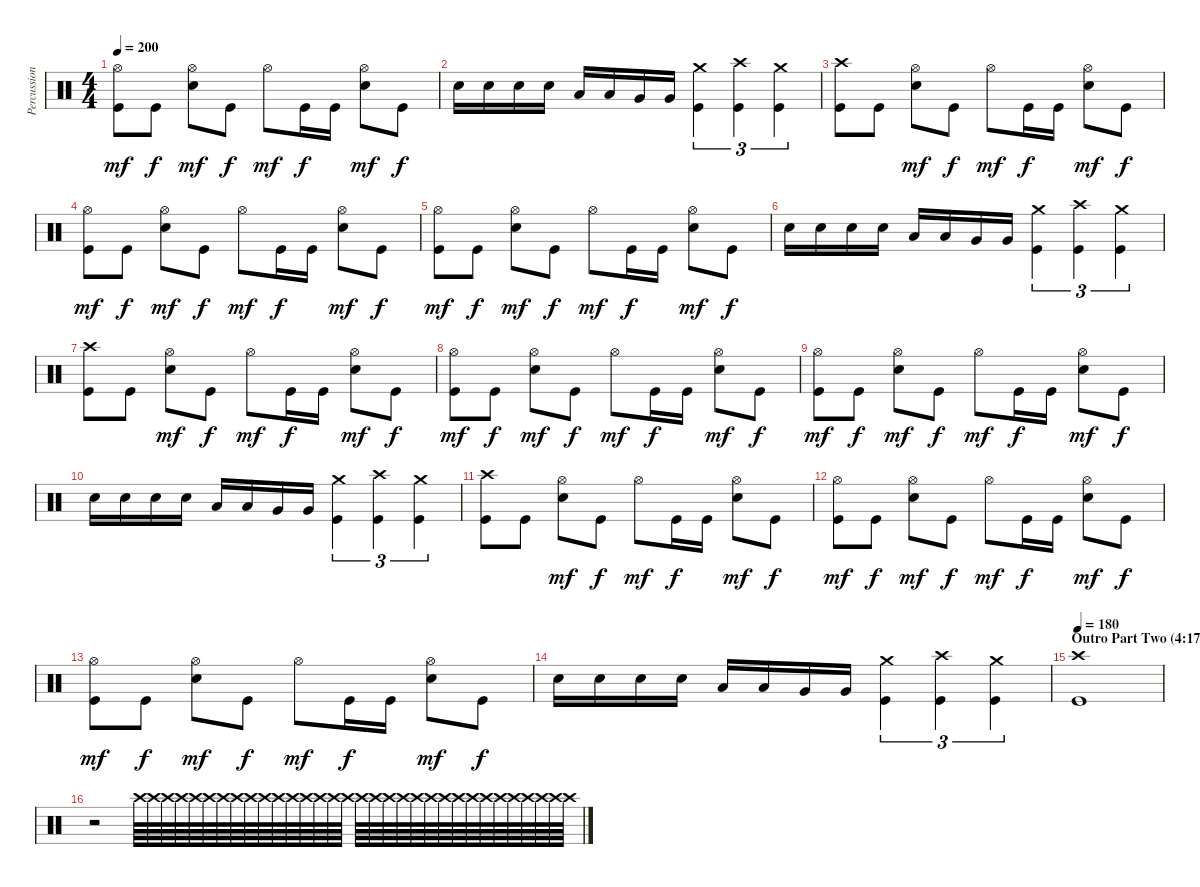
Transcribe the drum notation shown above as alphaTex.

\track ("Percussion" "Percussion") {instrument percussion}
\staff {score}
\articulation defaults
\ts (4 4)
\tempo 200
\clef neutral
\ks c
("Hi-Hat (open)" "Kick (hit)").8{dy mf} "Kick (hit)".8{dy f} ("Hi-Hat (open)" "Snare (hit) 2").8{dy mf} "Kick (hit)".8{dy f} "Hi-Hat (open)".8{dy mf} "Kick (hit)".16{dy f} "Kick (hit)".16 ("Hi-Hat (open)" "Snare (hit) 2").8{dy mf} "Kick (hit)".8{dy f} |
"Snare (hit) 2".16 "Snare (hit) 2".16 "Snare (hit) 2".16 "Snare (hit) 2".16 "Low Tom (hit)".16 "Low Tom (hit)".16 "Very Low Tom (hit)".16 "Very Low Tom (hit)".16 ("Crash medium (hit)" "Kick (hit)").4{tu (3 2)} ("Crash high (hit)" "Kick (hit)").4{tu (3 2)} ("Crash medium (hit)" "Kick (hit)").4{tu (3 2)} |
("Crash high (hit)" "Kick (hit)").8 "Kick (hit)".8 ("Hi-Hat (open)" "Snare (hit) 2").8{dy mf} "Kick (hit)".8{dy f} "Hi-Hat (open)".8{dy mf} "Kick (hit)".16{dy f} "Kick (hit)".16 ("Hi-Hat (open)" "Snare (hit) 2").8{dy mf} "Kick (hit)".8{dy f} |
("Hi-Hat (open)" "Kick (hit)").8{dy mf} "Kick (hit)".8{dy f} ("Hi-Hat (open)" "Snare (hit) 2").8{dy mf} "Kick (hit)".8{dy f} "Hi-Hat (open)".8{dy mf} "Kick (hit)".16{dy f} "Kick (hit)".16 ("Hi-Hat (open)" "Snare (hit) 2").8{dy mf} "Kick (hit)".8{dy f} |
("Hi-Hat (open)" "Kick (hit)").8{dy mf} "Kick (hit)".8{dy f} ("Hi-Hat (open)" "Snare (hit) 2").8{dy mf} "Kick (hit)".8{dy f} "Hi-Hat (open)".8{dy mf} "Kick (hit)".16{dy f} "Kick (hit)".16 ("Hi-Hat (open)" "Snare (hit) 2").8{dy mf} "Kick (hit)".8{dy f} |
"Snare (hit) 2".16 "Snare (hit) 2".16 "Snare (hit) 2".16 "Snare (hit) 2".16 "Low Tom (hit)".16 "Low Tom (hit)".16 "Very Low Tom (hit)".16 "Very Low Tom (hit)".16 ("Crash medium (hit)" "Kick (hit)").4{tu (3 2)} ("Crash high (hit)" "Kick (hit)").4{tu (3 2)} ("Crash medium (hit)" "Kick (hit)").4{tu (3 2)} |
("Crash high (hit)" "Kick (hit)").8 "Kick (hit)".8 ("Hi-Hat (open)" "Snare (hit) 2").8{dy mf} "Kick (hit)".8{dy f} "Hi-Hat (open)".8{dy mf} "Kick (hit)".16{dy f} "Kick (hit)".16 ("Hi-Hat (open)" "Snare (hit) 2").8{dy mf} "Kick (hit)".8{dy f} |
("Hi-Hat (open)" "Kick (hit)").8{dy mf} "Kick (hit)".8{dy f} ("Hi-Hat (open)" "Snare (hit) 2").8{dy mf} "Kick (hit)".8{dy f} "Hi-Hat (open)".8{dy mf} "Kick (hit)".16{dy f} "Kick (hit)".16 ("Hi-Hat (open)" "Snare (hit) 2").8{dy mf} "Kick (hit)".8{dy f} |
("Hi-Hat (open)" "Kick (hit)").8{dy mf} "Kick (hit)".8{dy f} ("Hi-Hat (open)" "Snare (hit) 2").8{dy mf} "Kick (hit)".8{dy f} "Hi-Hat (open)".8{dy mf} "Kick (hit)".16{dy f} "Kick (hit)".16 ("Hi-Hat (open)" "Snare (hit) 2").8{dy mf} "Kick (hit)".8{dy f} |
"Snare (hit) 2".16 "Snare (hit) 2".16 "Snare (hit) 2".16 "Snare (hit) 2".16 "Low Tom (hit)".16 "Low Tom (hit)".16 "Very Low Tom (hit)".16 "Very Low Tom (hit)".16 ("Crash medium (hit)" "Kick (hit)").4{tu (3 2)} ("Crash high (hit)" "Kick (hit)").4{tu (3 2)} ("Crash medium (hit)" "Kick (hit)").4{tu (3 2)} |
("Crash high (hit)" "Kick (hit)").8 "Kick (hit)".8 ("Hi-Hat (open)" "Snare (hit) 2").8{dy mf} "Kick (hit)".8{dy f} "Hi-Hat (open)".8{dy mf} "Kick (hit)".16{dy f} "Kick (hit)".16 ("Hi-Hat (open)" "Snare (hit) 2").8{dy mf} "Kick (hit)".8{dy f} |
("Hi-Hat (open)" "Kick (hit)").8{dy mf} "Kick (hit)".8{dy f} ("Hi-Hat (open)" "Snare (hit) 2").8{dy mf} "Kick (hit)".8{dy f} "Hi-Hat (open)".8{dy mf} "Kick (hit)".16{dy f} "Kick (hit)".16 ("Hi-Hat (open)" "Snare (hit) 2").8{dy mf} "Kick (hit)".8{dy f} |
("Hi-Hat (open)" "Kick (hit)").8{dy mf} "Kick (hit)".8{dy f} ("Hi-Hat (open)" "Snare (hit) 2").8{dy mf} "Kick (hit)".8{dy f} "Hi-Hat (open)".8{dy mf} "Kick (hit)".16{dy f} "Kick (hit)".16 ("Hi-Hat (open)" "Snare (hit) 2").8{dy mf} "Kick (hit)".8{dy f} |
"Snare (hit) 2".16 "Snare (hit) 2".16 "Snare (hit) 2".16 "Snare (hit) 2".16 "Low Tom (hit)".16 "Low Tom (hit)".16 "Very Low Tom (hit)".16 "Very Low Tom (hit)".16 ("Crash medium (hit)" "Kick (hit)").4{tu (3 2)} ("Crash high (hit)" "Kick (hit)").4{tu (3 2)} ("Crash medium (hit)" "Kick (hit)").4{tu (3 2)} |
\section ("" "Outro Part Two (4:17)")
\tempo 180
("Crash high (hit)" "Kick (hit)").1 |
r.2{volume 0} "Crash high (hit)".64{volume 10} "Crash high (hit)".64 "Crash high (hit)".64 "Crash high (hit)".64 "Crash high (hit)".64 "Crash high (hit)".64 "Crash high (hit)".64 "Crash high (hit)".64 "Crash high (hit)".64 "Crash high (hit)".64 "Crash high (hit)".64 "Crash high (hit)".64 "Crash high (hit)".64 "Crash high (hit)".64 "Crash high (hit)".64 "Crash high (hit)".64 "Crash high (hit)".64 "Crash high (hit)".64 "Crash high (hit)".64 "Crash high (hit)".64 "Crash high (hit)".64 "Crash high (hit)".64 "Crash high (hit)".64 "Crash high (hit)".64 "Crash high (hit)".64 "Crash high (hit)".64 "Crash high (hit)".64 "Crash high (hit)".64 "Crash high (hit)".64 "Crash high (hit)".64 "Crash high (hit)".64 "Crash high (hit)".64
